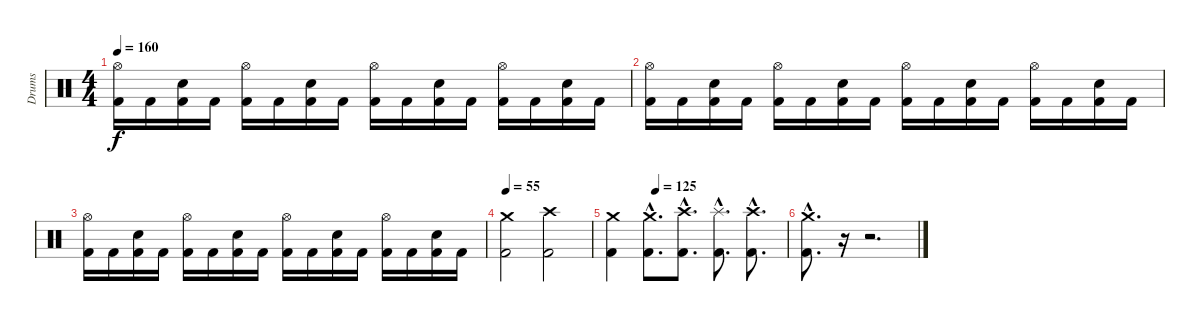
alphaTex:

\track ("Drums" "Drums") {instrument percussion}
\staff {score}
\articulation defaults
\ts (4 4)
\tempo 160
\clef neutral
\ks c
("Hi-Hat (open)" "Kick (hit) 2").16{dy f} "Kick (hit) 2".16 ("Electric Snare (hit)" "Kick (hit) 2").16 "Kick (hit) 2".16 ("Hi-Hat (open)" "Kick (hit) 2").16 "Kick (hit) 2".16 ("Electric Snare (hit)" "Kick (hit) 2").16 "Kick (hit) 2".16 ("Hi-Hat (open)" "Kick (hit) 2").16 "Kick (hit) 2".16 ("Electric Snare (hit)" "Kick (hit) 2").16 "Kick (hit) 2".16 ("Hi-Hat (open)" "Kick (hit) 2").16 "Kick (hit) 2".16 ("Electric Snare (hit)" "Kick (hit) 2").16 "Kick (hit) 2".16 |
("Hi-Hat (open)" "Kick (hit) 2").16 "Kick (hit) 2".16 ("Electric Snare (hit)" "Kick (hit) 2").16 "Kick (hit) 2".16 ("Hi-Hat (open)" "Kick (hit) 2").16 "Kick (hit) 2".16 ("Electric Snare (hit)" "Kick (hit) 2").16 "Kick (hit) 2".16 ("Hi-Hat (open)" "Kick (hit) 2").16 "Kick (hit) 2".16 ("Electric Snare (hit)" "Kick (hit) 2").16 "Kick (hit) 2".16 ("Hi-Hat (open)" "Kick (hit) 2").16 "Kick (hit) 2".16 ("Electric Snare (hit)" "Kick (hit) 2").16 "Kick (hit) 2".16 |
("Hi-Hat (open)" "Kick (hit) 2").16 "Kick (hit) 2".16 ("Electric Snare (hit)" "Kick (hit) 2").16 "Kick (hit) 2".16 ("Hi-Hat (open)" "Kick (hit) 2").16 "Kick (hit) 2".16 ("Electric Snare (hit)" "Kick (hit) 2").16 "Kick (hit) 2".16 ("Hi-Hat (open)" "Kick (hit) 2").16 "Kick (hit) 2".16 ("Electric Snare (hit)" "Kick (hit) 2").16 "Kick (hit) 2".16 ("Hi-Hat (open)" "Kick (hit) 2").16 "Kick (hit) 2".16 ("Electric Snare (hit)" "Kick (hit) 2").16 "Kick (hit) 2".16 |
\tempo 55
("Crash medium (hit)" "Kick (hit) 2").2 ("Crash high (hit)" "Kick (hit) 2").2 |
\tempo (125 0.25)
("Crash medium (hit)" "Kick (hit) 2").4 ("Crash medium (hit)"{hac} "Kick (hit) 2"{hac}).8{d} ("Crash high (hit)"{hac} "Kick (hit) 2"{hac}).8{d} ("Splash (hit)"{hac} "Kick (hit) 2"{hac}).8{d} ("Crash high (hit)"{hac} "Kick (hit) 2"{hac}).8{d} |
("Crash medium (hit)"{hac} "Kick (hit) 2"{hac}).8{d} r.16 r.2{d}
